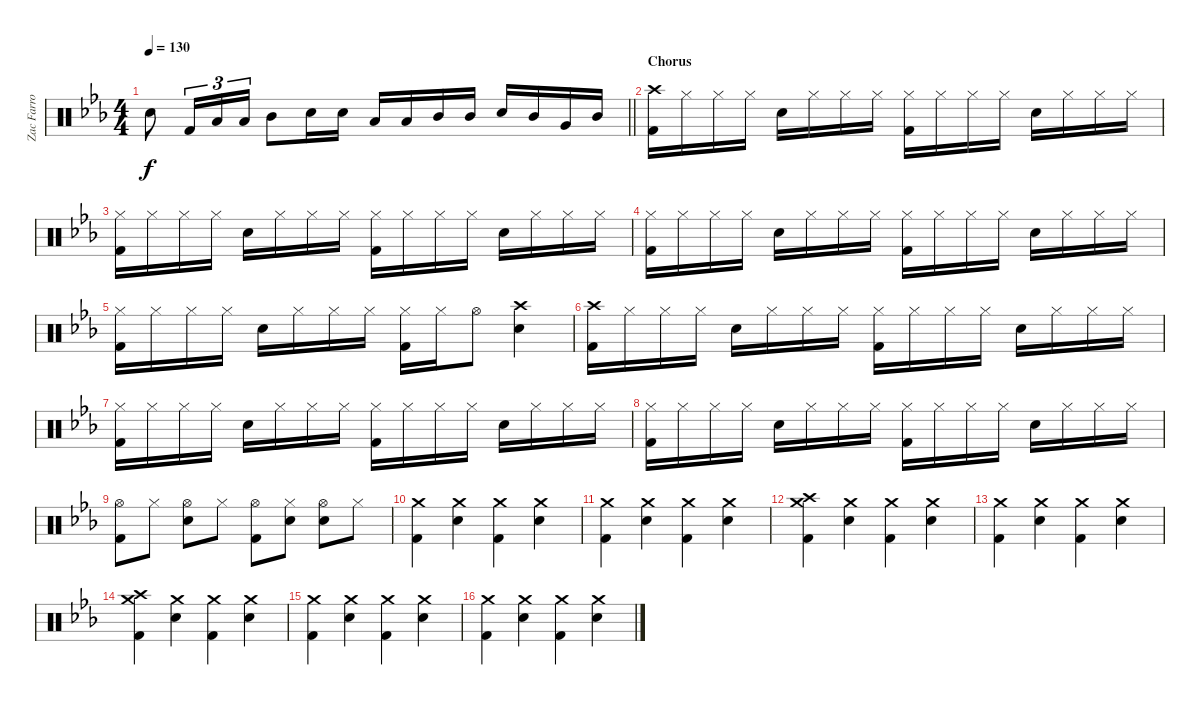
\track ("Zac Farro (Drums)" "Zac Farro ") {instrument percussion}
\staff {score}
\articulation defaults
\ts (4 4)
\tempo 130
\clef neutral
\barLineRight lightlight
\ks eb "Electric Snare (hit)".8{dy f} "Kick (hit) 2".16{tu (3 2)} "Low Tom (hit)".16{tu (3 2)} "Low Tom (hit)".16{tu (3 2)} "Mid Tom (hit)".8 "Electric Snare (hit)".16 "Electric Snare (hit)".16 "Low Tom (hit)".16 "Low Tom (hit)".16 "Mid Tom (hit)".16 "Mid Tom (hit)".16 "Electric Snare (hit)".16 "Mid Tom (hit)".16 "Very Low Tom (hit)".16 "Mid Tom (hit)".16
|
\section ("" "Chorus")
("Crash high (hit)" "Kick (hit) 2").16 "Hi-Hat (closed)".16 "Hi-Hat (closed)".16 "Hi-Hat (closed)".16 "Electric Snare (hit)".16 "Hi-Hat (closed)".16 "Hi-Hat (closed)".16 "Hi-Hat (closed)".16 ("Hi-Hat (closed)" "Kick (hit) 2").16 "Hi-Hat (closed)".16 "Hi-Hat (closed)".16 "Hi-Hat (closed)".16 "Electric Snare (hit)".16 "Hi-Hat (closed)".16 "Hi-Hat (closed)".16 "Hi-Hat (closed)".16 |
("Hi-Hat (closed)" "Kick (hit) 2").16 "Hi-Hat (closed)".16 "Hi-Hat (closed)".16 "Hi-Hat (closed)".16 "Electric Snare (hit)".16 "Hi-Hat (closed)".16 "Hi-Hat (closed)".16 "Hi-Hat (closed)".16 ("Hi-Hat (closed)" "Kick (hit) 2").16 "Hi-Hat (closed)".16 "Hi-Hat (closed)".16 "Hi-Hat (closed)".16 "Electric Snare (hit)".16 "Hi-Hat (closed)".16 "Hi-Hat (closed)".16 "Hi-Hat (closed)".16 |
("Hi-Hat (closed)" "Kick (hit) 2").16 "Hi-Hat (closed)".16 "Hi-Hat (closed)".16 "Hi-Hat (closed)".16 "Electric Snare (hit)".16 "Hi-Hat (closed)".16 "Hi-Hat (closed)".16 "Hi-Hat (closed)".16 ("Hi-Hat (closed)" "Kick (hit) 2").16 "Hi-Hat (closed)".16 "Hi-Hat (closed)".16 "Hi-Hat (closed)".16 "Electric Snare (hit)".16 "Hi-Hat (closed)".16 "Hi-Hat (closed)".16 "Hi-Hat (closed)".16 |
("Hi-Hat (closed)" "Kick (hit) 2").16 "Hi-Hat (closed)".16 "Hi-Hat (closed)".16 "Hi-Hat (closed)".16 "Electric Snare (hit)".16 "Hi-Hat (closed)".16 "Hi-Hat (closed)".16 "Hi-Hat (closed)".16 ("Hi-Hat (closed)" "Kick (hit) 2").16 "Hi-Hat (closed)".16 "Hi-Hat (open)".8 ("Crash high (hit)" "Snare (hit) 2").4 |
("Crash high (hit)" "Kick (hit) 2").16 "Hi-Hat (closed)".16 "Hi-Hat (closed)".16 "Hi-Hat (closed)".16 "Electric Snare (hit)".16 "Hi-Hat (closed)".16 "Hi-Hat (closed)".16 "Hi-Hat (closed)".16 ("Hi-Hat (closed)" "Kick (hit) 2").16 "Hi-Hat (closed)".16 "Hi-Hat (closed)".16 "Hi-Hat (closed)".16 "Electric Snare (hit)".16 "Hi-Hat (closed)".16 "Hi-Hat (closed)".16 "Hi-Hat (closed)".16 |
("Hi-Hat (closed)" "Kick (hit) 2").16 "Hi-Hat (closed)".16 "Hi-Hat (closed)".16 "Hi-Hat (closed)".16 "Electric Snare (hit)".16 "Hi-Hat (closed)".16 "Hi-Hat (closed)".16 "Hi-Hat (closed)".16 ("Hi-Hat (closed)" "Kick (hit) 2").16 "Hi-Hat (closed)".16 "Hi-Hat (closed)".16 "Hi-Hat (closed)".16 "Electric Snare (hit)".16 "Hi-Hat (closed)".16 "Hi-Hat (closed)".16 "Hi-Hat (closed)".16 |
("Hi-Hat (closed)" "Kick (hit) 2").16 "Hi-Hat (closed)".16 "Hi-Hat (closed)".16 "Hi-Hat (closed)".16 "Electric Snare (hit)".16 "Hi-Hat (closed)".16 "Hi-Hat (closed)".16 "Hi-Hat (closed)".16 ("Hi-Hat (closed)" "Kick (hit) 2").16 "Hi-Hat (closed)".16 "Hi-Hat (closed)".16 "Hi-Hat (closed)".16 "Electric Snare (hit)".16 "Hi-Hat (closed)".16 "Hi-Hat (closed)".16 "Hi-Hat (closed)".16 |
("Hi-Hat (open)" "Kick (hit) 2").8 "Hi-Hat (closed)".8 ("Hi-Hat (open)" "Electric Snare (hit)").8 "Hi-Hat (closed)".8 ("Hi-Hat (open)" "Kick (hit) 2").8 ("Hi-Hat (closed)" "Electric Snare (hit)").8 ("Hi-Hat (open)" "Electric Snare (hit)").8 "Hi-Hat (closed)".8 |
("Crash medium (hit)" "Kick (hit) 2").4 ("Crash medium (hit)" "Electric Snare (hit)").4 ("Crash medium (hit)" "Kick (hit) 2").4 ("Crash medium (hit)" "Electric Snare (hit)").4 |
("Crash medium (hit)" "Kick (hit) 2").4 ("Crash medium (hit)" "Electric Snare (hit)").4 ("Crash medium (hit)" "Kick (hit) 2").4 ("Crash medium (hit)" "Electric Snare (hit)").4 |
("Crash medium (hit)" "Kick (hit) 2" "Crash high (hit)").4 ("Crash medium (hit)" "Electric Snare (hit)").4 ("Crash medium (hit)" "Kick (hit) 2").4 ("Crash medium (hit)" "Electric Snare (hit)").4 |
("Crash medium (hit)" "Kick (hit) 2").4 ("Crash medium (hit)" "Electric Snare (hit)").4 ("Crash medium (hit)" "Kick (hit) 2").4 ("Crash medium (hit)" "Electric Snare (hit)").4 |
("Crash medium (hit)" "Kick (hit) 2" "Crash high (hit)").4 ("Crash medium (hit)" "Electric Snare (hit)").4 ("Crash medium (hit)" "Kick (hit) 2").4 ("Crash medium (hit)" "Electric Snare (hit)").4 |
("Crash medium (hit)" "Kick (hit) 2").4 ("Crash medium (hit)" "Electric Snare (hit)").4 ("Crash medium (hit)" "Kick (hit) 2").4 ("Crash medium (hit)" "Electric Snare (hit)").4 |
("Crash medium (hit)" "Kick (hit) 2").4 ("Crash medium (hit)" "Electric Snare (hit)").4 ("Crash medium (hit)" "Kick (hit) 2").4 ("Crash medium (hit)" "Electric Snare (hit)").4
